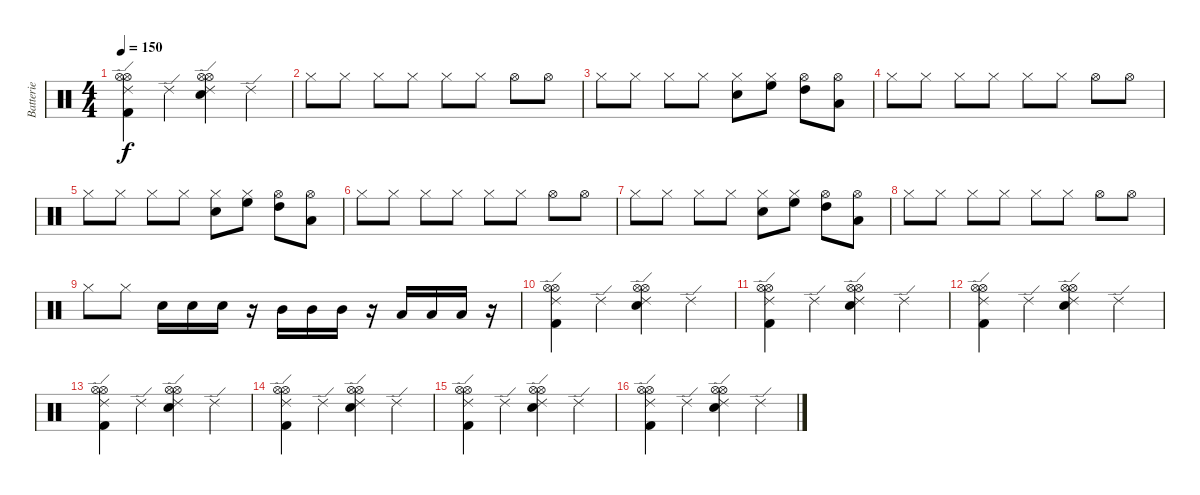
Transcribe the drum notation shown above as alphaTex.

\track ("Batterie" "Batterie") {instrument percussion}
\staff {score}
\articulation defaults
\ts (4 4)
\tempo 150
\clef neutral
\ks c
("Hi-Hat (open)" "Hi-Hat (open)" "Ride (edge) 2" "Kick (hit) 2").4{dy f} "Ride (edge) 2".4 ("Snare (hit) 2" "Hi-Hat (open)" "Hi-Hat (open)" "Ride (edge) 2").4 "Ride (edge) 2".4 |
\section ("" "")
"Hi-Hat (closed)".8 "Hi-Hat (closed)".8 "Hi-Hat (closed)".8 "Hi-Hat (closed)".8 "Hi-Hat (closed)".8 "Hi-Hat (closed)".8 "Hi-Hat (open)".8 "Hi-Hat (open)".8 |
"Hi-Hat (closed)".8 "Hi-Hat (closed)".8 "Hi-Hat (closed)".8 "Hi-Hat (closed)".8 ("Hi-Hat (closed)" "Snare (hit) 2").8 ("Hi-Hat (closed)" "High Floor Tom (hit)").8 ("Hi-Hat (open)" "High Tom (hit)").8 ("Hi-Hat (open)" "Low Tom (hit)").8 |
"Hi-Hat (closed)".8 "Hi-Hat (closed)".8 "Hi-Hat (closed)".8 "Hi-Hat (closed)".8 "Hi-Hat (closed)".8 "Hi-Hat (closed)".8 "Hi-Hat (open)".8 "Hi-Hat (open)".8 |
"Hi-Hat (closed)".8 "Hi-Hat (closed)".8 "Hi-Hat (closed)".8 "Hi-Hat (closed)".8 ("Hi-Hat (closed)" "Snare (hit) 2").8 ("Hi-Hat (closed)" "High Floor Tom (hit)").8 ("Hi-Hat (open)" "High Tom (hit)").8 ("Hi-Hat (open)" "Low Tom (hit)").8 |
"Hi-Hat (closed)".8 "Hi-Hat (closed)".8 "Hi-Hat (closed)".8 "Hi-Hat (closed)".8 "Hi-Hat (closed)".8 "Hi-Hat (closed)".8 "Hi-Hat (open)".8 "Hi-Hat (open)".8 |
"Hi-Hat (closed)".8 "Hi-Hat (closed)".8 "Hi-Hat (closed)".8 "Hi-Hat (closed)".8 ("Hi-Hat (closed)" "Snare (hit) 2").8 ("Hi-Hat (closed)" "High Floor Tom (hit)").8 ("Hi-Hat (open)" "High Tom (hit)").8 ("Hi-Hat (open)" "Low Tom (hit)").8 |
"Hi-Hat (closed)".8 "Hi-Hat (closed)".8 "Hi-Hat (closed)".8 "Hi-Hat (closed)".8 "Hi-Hat (closed)".8 "Hi-Hat (closed)".8 "Hi-Hat (open)".8 "Hi-Hat (open)".8 |
"Hi-Hat (closed)".8 "Hi-Hat (closed)".8 "Snare (hit) 2".16 "Snare (hit) 2".16 "Snare (hit) 2".16 r.16 "Mid Tom (hit)".16 "Mid Tom (hit)".16 "Mid Tom (hit)".16 r.16 "Low Tom (hit)".16 "Low Tom (hit)".16 "Low Tom (hit)".16 r.16 |
\section ("" "")
("Hi-Hat (open)" "Hi-Hat (open)" "Ride (edge) 2" "Kick (hit) 2").4 "Ride (edge) 2".4 ("Snare (hit) 2" "Hi-Hat (open)" "Hi-Hat (open)" "Ride (edge) 2").4 "Ride (edge) 2".4 |
("Hi-Hat (open)" "Hi-Hat (open)" "Ride (edge) 2" "Kick (hit) 2").4 "Ride (edge) 2".4 ("Snare (hit) 2" "Hi-Hat (open)" "Hi-Hat (open)" "Ride (edge) 2").4 "Ride (edge) 2".4 |
("Hi-Hat (open)" "Hi-Hat (open)" "Ride (edge) 2" "Kick (hit) 2").4 "Ride (edge) 2".4 ("Snare (hit) 2" "Hi-Hat (open)" "Hi-Hat (open)" "Ride (edge) 2").4 "Ride (edge) 2".4 |
("Hi-Hat (open)" "Hi-Hat (open)" "Ride (edge) 2" "Kick (hit) 2").4 "Ride (edge) 2".4 ("Snare (hit) 2" "Hi-Hat (open)" "Hi-Hat (open)" "Ride (edge) 2").4 "Ride (edge) 2".4 |
("Hi-Hat (open)" "Hi-Hat (open)" "Ride (edge) 2" "Kick (hit) 2").4 "Ride (edge) 2".4 ("Snare (hit) 2" "Hi-Hat (open)" "Hi-Hat (open)" "Ride (edge) 2").4 "Ride (edge) 2".4 |
("Hi-Hat (open)" "Hi-Hat (open)" "Ride (edge) 2" "Kick (hit) 2").4 "Ride (edge) 2".4 ("Snare (hit) 2" "Hi-Hat (open)" "Hi-Hat (open)" "Ride (edge) 2").4 "Ride (edge) 2".4 |
("Hi-Hat (open)" "Hi-Hat (open)" "Ride (edge) 2" "Kick (hit) 2").4 "Ride (edge) 2".4 ("Snare (hit) 2" "Hi-Hat (open)" "Hi-Hat (open)" "Ride (edge) 2").4 "Ride (edge) 2".4
